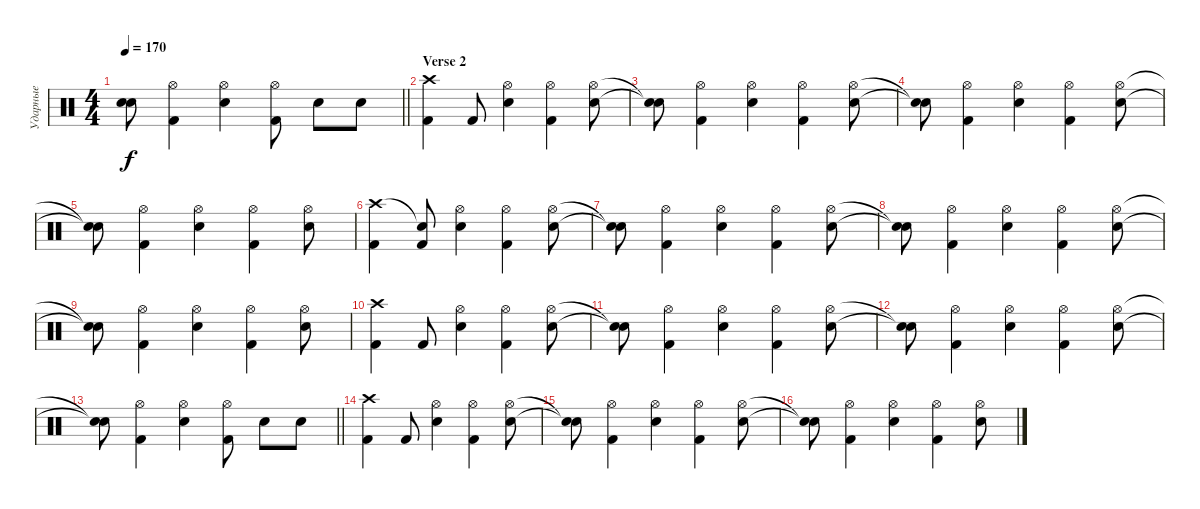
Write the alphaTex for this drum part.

\track ("Ударные" "Ударные") {instrument percussion}
\staff {score}
\articulation defaults
\ts (4 4)
\tempo 170
\clef neutral
\barLineRight lightlight
\ks c
("Snare (hit)"{t} "Snare (hit)"{t}).8{dy f} ("Hi-Hat (open)" "Kick (hit) 2").4 ("Hi-Hat (open)" "Snare (hit) 2").4 ("Kick (hit) 2" "Hi-Hat (open)").8 "Snare (hit) 2".8 "Snare (hit) 2".8 |
\section ("" "Verse 2")
("Crash high (hit)" "Kick (hit) 2").4 "Kick (hit) 2".8 ("Hi-Hat (open)" "Snare (hit) 2").4 ("Hi-Hat (open)" "Kick (hit) 2").4 ("Hi-Hat (open)" "Snare (hit) 2").8 |
("Snare (hit)"{t} "Snare (hit)"{t}).8 ("Hi-Hat (open)" "Kick (hit) 2").4 ("Hi-Hat (open)" "Snare (hit) 2").4 ("Hi-Hat (open)" "Kick (hit) 2").4 ("Hi-Hat (open)" "Snare (hit) 2").8 |
("Snare (hit)"{t} "Snare (hit)"{t}).8 ("Hi-Hat (open)" "Kick (hit) 2").4 ("Hi-Hat (open)" "Snare (hit) 2").4 ("Hi-Hat (open)" "Kick (hit) 2").4 ("Hi-Hat (open)" "Snare (hit) 2").8 |
("Snare (hit)"{t} "Snare (hit)"{t}).8 ("Hi-Hat (open)" "Kick (hit) 2").4 ("Hi-Hat (open)" "Snare (hit) 2").4 ("Hi-Hat (open)" "Kick (hit) 2").4 ("Hi-Hat (open)" "Snare (hit) 2").8 |
("Crash high (hit)" "Kick (hit) 2").4 ("Snare (hit)"{t} "Kick (hit) 2").8 ("Hi-Hat (open)" "Snare (hit) 2").4 ("Hi-Hat (open)" "Kick (hit) 2").4 ("Hi-Hat (open)" "Snare (hit) 2").8 |
("Snare (hit)"{t} "Snare (hit)"{t}).8 ("Hi-Hat (open)" "Kick (hit) 2").4 ("Hi-Hat (open)" "Snare (hit) 2").4 ("Hi-Hat (open)" "Kick (hit) 2").4 ("Hi-Hat (open)" "Snare (hit) 2").8 |
("Snare (hit)"{t} "Snare (hit)"{t}).8 ("Hi-Hat (open)" "Kick (hit) 2").4 ("Hi-Hat (open)" "Snare (hit) 2").4 ("Hi-Hat (open)" "Kick (hit) 2").4 ("Hi-Hat (open)" "Snare (hit) 2").8 |
("Snare (hit)"{t} "Snare (hit)"{t}).8 ("Hi-Hat (open)" "Kick (hit) 2").4 ("Hi-Hat (open)" "Snare (hit) 2").4 ("Hi-Hat (open)" "Kick (hit) 2").4 ("Hi-Hat (open)" "Snare (hit) 2").8 |
("Crash high (hit)" "Kick (hit) 2").4 "Kick (hit) 2".8 ("Hi-Hat (open)" "Snare (hit) 2").4 ("Hi-Hat (open)" "Kick (hit) 2").4 ("Hi-Hat (open)" "Snare (hit) 2").8 |
("Snare (hit)"{t} "Snare (hit)"{t}).8 ("Hi-Hat (open)" "Kick (hit) 2").4 ("Hi-Hat (open)" "Snare (hit) 2").4 ("Hi-Hat (open)" "Kick (hit) 2").4 ("Hi-Hat (open)" "Snare (hit) 2").8 |
("Snare (hit)"{t} "Snare (hit)"{t}).8 ("Hi-Hat (open)" "Kick (hit) 2").4 ("Hi-Hat (open)" "Snare (hit) 2").4 ("Hi-Hat (open)" "Kick (hit) 2").4 ("Hi-Hat (open)" "Snare (hit) 2").8 |
\barLineRight lightlight
("Snare (hit)"{t} "Snare (hit)"{t}).8 ("Hi-Hat (open)" "Kick (hit) 2").4 ("Hi-Hat (open)" "Snare (hit) 2").4 ("Kick (hit) 2" "Hi-Hat (open)").8 "Snare (hit) 2".8 "Snare (hit) 2".8 |
("Crash high (hit)" "Kick (hit) 2").4 "Kick (hit) 2".8 ("Hi-Hat (open)" "Snare (hit) 2").4 ("Hi-Hat (open)" "Kick (hit) 2").4 ("Hi-Hat (open)" "Snare (hit) 2").8 |
("Snare (hit)"{t} "Snare (hit)"{t}).8 ("Hi-Hat (open)" "Kick (hit) 2").4 ("Hi-Hat (open)" "Snare (hit) 2").4 ("Hi-Hat (open)" "Kick (hit) 2").4 ("Hi-Hat (open)" "Snare (hit) 2").8 |
("Snare (hit)"{t} "Snare (hit)"{t}).8 ("Hi-Hat (open)" "Kick (hit) 2").4 ("Hi-Hat (open)" "Snare (hit) 2").4 ("Hi-Hat (open)" "Kick (hit) 2").4 ("Hi-Hat (open)" "Snare (hit) 2").8
